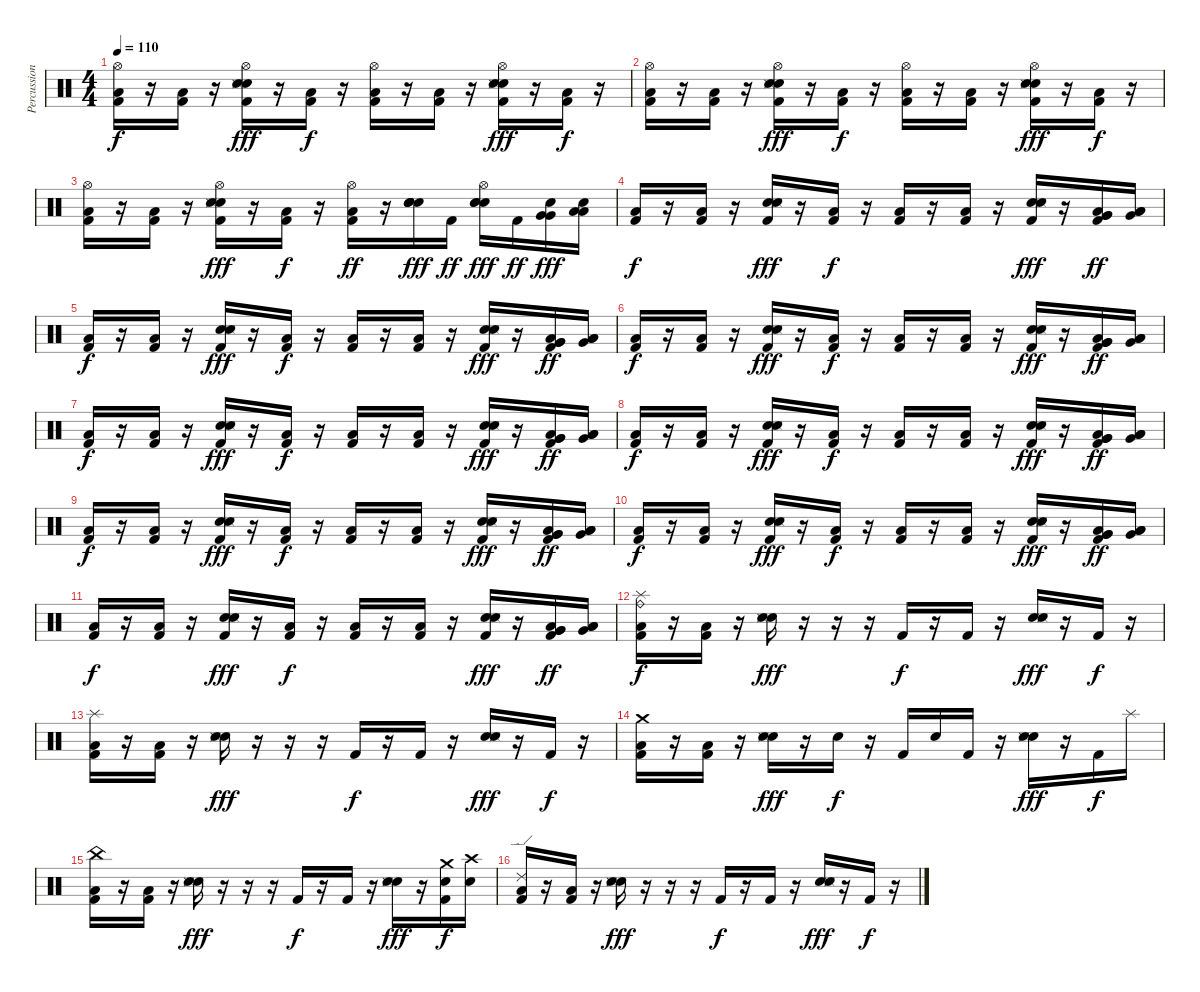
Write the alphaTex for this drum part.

\track ("Percussion" "Percussion") {instrument percussion}
\staff {score}
\articulation defaults
\ts (4 4)
\tempo 110
\clef neutral
\ks c
("Hi-Hat (open)" "Low Floor Tom (hit)" "Kick (hit) 2").16{dy f} r.16 ("Low Floor Tom (hit)" "Kick (hit) 2").16 r.16 ("Hi-Hat (open)" "Electric Snare (hit)" "Electric Snare (hit)" "Snare (side stick) 3" "Kick (hit) 2").16{dy fff} r.16 ("Low Floor Tom (hit)" "Kick (hit) 2").16{dy f} r.16 ("Hi-Hat (open)" "Low Floor Tom (hit)" "Kick (hit) 2").16 r.16 ("Low Floor Tom (hit)" "Kick (hit) 2").16 r.16 ("Hi-Hat (open)" "Electric Snare (hit)" "Electric Snare (hit)" "Snare (side stick) 3" "Kick (hit) 2").16{dy fff} r.16 ("Low Floor Tom (hit)" "Kick (hit) 2").16{dy f} r.16 |
("Hi-Hat (open)" "Low Floor Tom (hit)" "Kick (hit) 2").16 r.16 ("Low Floor Tom (hit)" "Kick (hit) 2").16 r.16 ("Hi-Hat (open)" "Electric Snare (hit)" "Electric Snare (hit)" "Snare (side stick) 3" "Kick (hit) 2").16{dy fff} r.16 ("Low Floor Tom (hit)" "Kick (hit) 2").16{dy f} r.16 ("Hi-Hat (open)" "Low Floor Tom (hit)" "Kick (hit) 2").16 r.16 ("Low Floor Tom (hit)" "Kick (hit) 2").16 r.16 ("Hi-Hat (open)" "Electric Snare (hit)" "Electric Snare (hit)" "Snare (side stick) 3" "Kick (hit) 2").16{dy fff} r.16 ("Low Floor Tom (hit)" "Kick (hit) 2").16{dy f} r.16 |
("Hi-Hat (open)" "Low Floor Tom (hit)" "Kick (hit) 2").16 r.16 ("Low Floor Tom (hit)" "Kick (hit) 2").16 r.16 ("Hi-Hat (open)" "Electric Snare (hit)" "Electric Snare (hit)" "Snare (side stick) 3" "Kick (hit) 2").16{dy fff} r.16 ("Low Floor Tom (hit)" "Kick (hit) 2").16{dy f} r.16 ("Hi-Hat (open)" "Low Floor Tom (hit)" "Kick (hit) 2").16{dy ff} r.16 ("Electric Snare (hit)" "Electric Snare (hit)" "Electric Snare (hit)" "Electric Snare (hit)").16{dy fff} "Kick (hit) 2".16{dy ff} ("Hi-Hat (open)" "Electric Snare (hit)" "Electric Snare (hit)" "Electric Snare (hit)").16{dy fff} "Kick (hit) 2".16{dy ff} ("Very Low Tom (hit)" "Very Low Tom (hit)" "Electric Snare (hit)").16{dy fff} ("Low Floor Tom (hit)" "Low Floor Tom (hit)" "Electric Snare (hit)").16 |
("Low Floor Tom (hit)" "Kick (hit) 2").16{dy f} r.16 ("Low Floor Tom (hit)" "Kick (hit) 2").16 r.16 ("Electric Snare (hit)" "Electric Snare (hit)" "Snare (side stick) 3" "Kick (hit) 2").16{dy fff} r.16 ("Low Floor Tom (hit)" "Kick (hit) 2").16{dy f} r.16 ("Low Floor Tom (hit)" "Kick (hit) 2").16 r.16 ("Low Floor Tom (hit)" "Kick (hit) 2").16 r.16 ("Electric Snare (hit)" "Electric Snare (hit)" "Snare (side stick) 3" "Kick (hit) 2").16{dy fff} r.16 ("Low Tom (hit)" "Very Low Tom (hit)" "Very Low Tom (hit)" "Kick (hit) 2").16{dy ff} ("Very Low Tom (hit)" "Low Floor Tom (hit)" "Low Floor Tom (hit)").16 |
("Low Floor Tom (hit)" "Kick (hit) 2").16{dy f} r.16 ("Low Floor Tom (hit)" "Kick (hit) 2").16 r.16 ("Electric Snare (hit)" "Electric Snare (hit)" "Snare (side stick) 3" "Kick (hit) 2").16{dy fff} r.16 ("Low Floor Tom (hit)" "Kick (hit) 2").16{dy f} r.16 ("Low Floor Tom (hit)" "Kick (hit) 2").16 r.16 ("Low Floor Tom (hit)" "Kick (hit) 2").16 r.16 ("Electric Snare (hit)" "Electric Snare (hit)" "Snare (side stick) 3" "Kick (hit) 2").16{dy fff} r.16 ("Low Tom (hit)" "Very Low Tom (hit)" "Very Low Tom (hit)" "Kick (hit) 2").16{dy ff} ("Very Low Tom (hit)" "Low Floor Tom (hit)" "Low Floor Tom (hit)").16 |
("Low Floor Tom (hit)" "Kick (hit) 2").16{dy f} r.16 ("Low Floor Tom (hit)" "Kick (hit) 2").16 r.16 ("Electric Snare (hit)" "Electric Snare (hit)" "Snare (side stick) 3" "Kick (hit) 2").16{dy fff} r.16 ("Low Floor Tom (hit)" "Kick (hit) 2").16{dy f} r.16 ("Low Floor Tom (hit)" "Kick (hit) 2").16 r.16 ("Low Floor Tom (hit)" "Kick (hit) 2").16 r.16 ("Electric Snare (hit)" "Electric Snare (hit)" "Snare (side stick) 3" "Kick (hit) 2").16{dy fff} r.16 ("Low Tom (hit)" "Very Low Tom (hit)" "Very Low Tom (hit)" "Kick (hit) 2").16{dy ff} ("Very Low Tom (hit)" "Low Floor Tom (hit)" "Low Floor Tom (hit)").16 |
("Low Floor Tom (hit)" "Kick (hit) 2").16{dy f} r.16 ("Low Floor Tom (hit)" "Kick (hit) 2").16 r.16 ("Electric Snare (hit)" "Electric Snare (hit)" "Snare (side stick) 3" "Kick (hit) 2").16{dy fff} r.16 ("Low Floor Tom (hit)" "Kick (hit) 2").16{dy f} r.16 ("Low Floor Tom (hit)" "Kick (hit) 2").16 r.16 ("Low Floor Tom (hit)" "Kick (hit) 2").16 r.16 ("Electric Snare (hit)" "Electric Snare (hit)" "Snare (side stick) 3" "Kick (hit) 2").16{dy fff} r.16 ("Low Tom (hit)" "Very Low Tom (hit)" "Very Low Tom (hit)" "Kick (hit) 2").16{dy ff} ("Very Low Tom (hit)" "Low Floor Tom (hit)" "Low Floor Tom (hit)").16 |
("Low Floor Tom (hit)" "Kick (hit) 2").16{dy f} r.16 ("Low Floor Tom (hit)" "Kick (hit) 2").16 r.16 ("Electric Snare (hit)" "Electric Snare (hit)" "Snare (side stick) 3" "Kick (hit) 2").16{dy fff} r.16 ("Low Floor Tom (hit)" "Kick (hit) 2").16{dy f} r.16 ("Low Floor Tom (hit)" "Kick (hit) 2").16 r.16 ("Low Floor Tom (hit)" "Kick (hit) 2").16 r.16 ("Electric Snare (hit)" "Electric Snare (hit)" "Snare (side stick) 3" "Kick (hit) 2").16{dy fff} r.16 ("Low Tom (hit)" "Very Low Tom (hit)" "Very Low Tom (hit)" "Kick (hit) 2").16{dy ff} ("Very Low Tom (hit)" "Low Floor Tom (hit)" "Low Floor Tom (hit)").16 |
("Low Floor Tom (hit)" "Kick (hit) 2").16{dy f} r.16 ("Low Floor Tom (hit)" "Kick (hit) 2").16 r.16 ("Electric Snare (hit)" "Electric Snare (hit)" "Snare (side stick) 3" "Kick (hit) 2").16{dy fff} r.16 ("Low Floor Tom (hit)" "Kick (hit) 2").16{dy f} r.16 ("Low Floor Tom (hit)" "Kick (hit) 2").16 r.16 ("Low Floor Tom (hit)" "Kick (hit) 2").16 r.16 ("Electric Snare (hit)" "Electric Snare (hit)" "Snare (side stick) 3" "Kick (hit) 2").16{dy fff} r.16 ("Low Tom (hit)" "Very Low Tom (hit)" "Very Low Tom (hit)" "Kick (hit) 2").16{dy ff} ("Very Low Tom (hit)" "Low Floor Tom (hit)" "Low Floor Tom (hit)").16 |
("Low Floor Tom (hit)" "Kick (hit) 2").16{dy f} r.16 ("Low Floor Tom (hit)" "Kick (hit) 2").16 r.16 ("Electric Snare (hit)" "Electric Snare (hit)" "Snare (side stick) 3" "Kick (hit) 2").16{dy fff} r.16 ("Low Floor Tom (hit)" "Kick (hit) 2").16{dy f} r.16 ("Low Floor Tom (hit)" "Kick (hit) 2").16 r.16 ("Low Floor Tom (hit)" "Kick (hit) 2").16 r.16 ("Electric Snare (hit)" "Electric Snare (hit)" "Snare (side stick) 3" "Kick (hit) 2").16{dy fff} r.16 ("Low Tom (hit)" "Very Low Tom (hit)" "Very Low Tom (hit)" "Kick (hit) 2").16{dy ff} ("Very Low Tom (hit)" "Low Floor Tom (hit)" "Low Floor Tom (hit)").16 |
("Low Floor Tom (hit)" "Kick (hit) 2").16{dy f} r.16 ("Low Floor Tom (hit)" "Kick (hit) 2").16 r.16 ("Electric Snare (hit)" "Electric Snare (hit)" "Snare (side stick) 3" "Kick (hit) 2").16{dy fff} r.16 ("Low Floor Tom (hit)" "Kick (hit) 2").16{dy f} r.16 ("Low Floor Tom (hit)" "Kick (hit) 2").16 r.16 ("Low Floor Tom (hit)" "Kick (hit) 2").16 r.16 ("Electric Snare (hit)" "Electric Snare (hit)" "Snare (side stick) 3" "Kick (hit) 2").16{dy fff} r.16 ("Low Tom (hit)" "Very Low Tom (hit)" "Very Low Tom (hit)" "Kick (hit) 2").16{dy ff} ("Very Low Tom (hit)" "Low Floor Tom (hit)" "Low Floor Tom (hit)").16 |
("Splash (hit)" "Ride (bell)" "Low Floor Tom (hit)" "Kick (hit) 2").16{dy f} r.16 ("Low Floor Tom (hit)" "Kick (hit) 2").16 r.16 ("Electric Snare (hit)" "Electric Snare (hit)" "Snare (side stick) 3").16{dy fff} r.16 r.16 r.16 "Kick (hit) 2".16{dy f} r.16 "Kick (hit) 2".16 r.16 ("Electric Snare (hit)" "Electric Snare (hit)" "Snare (side stick) 3").16{dy fff} r.16 "Kick (hit) 2".16{dy f} r.16 |
("Splash (hit)" "Low Floor Tom (hit)" "Kick (hit) 2").16 r.16 ("Low Floor Tom (hit)" "Kick (hit) 2").16 r.16 ("Electric Snare (hit)" "Electric Snare (hit)" "Snare (side stick) 3").16{dy fff} r.16 r.16 r.16 "Kick (hit) 2".16{dy f} r.16 "Kick (hit) 2".16 r.16 ("Electric Snare (hit)" "Electric Snare (hit)" "Snare (side stick) 3").16{dy fff} r.16 "Kick (hit) 2".16{dy f} r.16 |
("Crash medium (hit)" "Low Floor Tom (hit)" "Kick (hit) 2").16 r.16 ("Low Floor Tom (hit)" "Kick (hit) 2").16 r.16 ("Electric Snare (hit)" "Electric Snare (hit)" "Snare (side stick) 3").16{dy fff} r.16 "Electric Snare (hit)".16{dy f} r.16 "Kick (hit) 2".16 "Electric Snare (hit)".16 "Kick (hit) 2".16 r.16 ("Electric Snare (hit)" "Electric Snare (hit)" "Snare (side stick) 3").16{dy fff} r.16 "Kick (hit) 2".16{dy f} "Splash (hit)".16 |
("China (hit)" "Low Floor Tom (hit)" "Kick (hit) 2").16 r.16 ("Low Floor Tom (hit)" "Kick (hit) 2").16 r.16 ("Electric Snare (hit)" "Electric Snare (hit)" "Snare (side stick) 3").16{dy fff} r.16 r.16 r.16 "Kick (hit) 2".16{dy f} r.16 "Kick (hit) 2".16 r.16 ("Electric Snare (hit)" "Electric Snare (hit)" "Snare (side stick) 3").16{dy fff} r.16 ("Crash medium (hit)" "Electric Snare (hit)" "Kick (hit) 2").16{dy f} ("Crash high (hit)" "Electric Snare (hit)").16 |
("Ride (edge) 2" "Low Floor Tom (hit)" "Kick (hit) 2").16 r.16 ("Low Floor Tom (hit)" "Kick (hit) 2").16 r.16 ("Electric Snare (hit)" "Electric Snare (hit)" "Snare (side stick) 3").16{dy fff} r.16 r.16 r.16 "Kick (hit) 2".16{dy f} r.16 "Kick (hit) 2".16 r.16 ("Electric Snare (hit)" "Electric Snare (hit)" "Snare (side stick) 3").16{dy fff} r.16 "Kick (hit) 2".16{dy f} r.16
